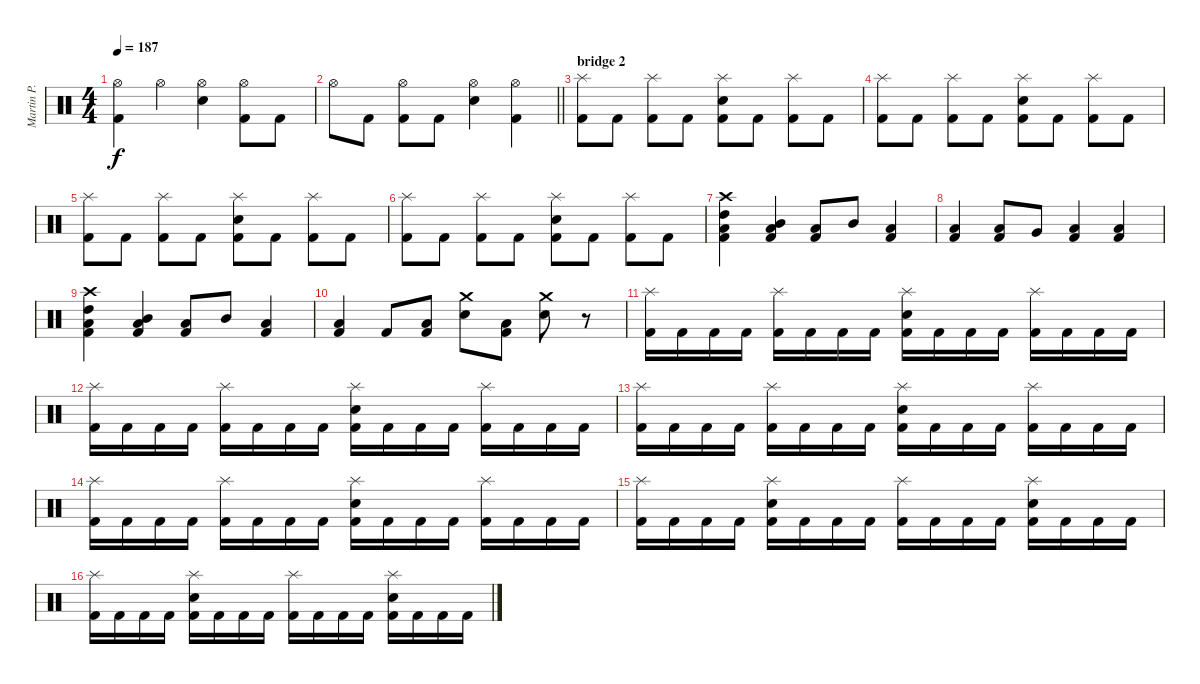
\track ("Martin P." "Martin P.") {instrument percussion}
\staff {score}
\articulation defaults
\ts (4 4)
\tempo 187
\clef neutral
\ks c
("Hi-Hat (open)" "Kick (hit) 2").4{dy f} "Hi-Hat (open)".4 ("Hi-Hat (open)" "Electric Snare (hit)").4 ("Hi-Hat (open)" "Kick (hit) 2").8 "Kick (hit) 2".8 |
\barLineRight lightlight "Hi-Hat (open)".8 "Kick (hit) 2".8
("Hi-Hat (open)" "Kick (hit) 2").8 "Kick (hit) 2".8 ("Hi-Hat (open)" "Electric Snare (hit)").4 ("Hi-Hat (open)" "Kick (hit) 2").4 |
\section ("" "bridge 2")
("Kick (hit) 2" "Splash (hit)").8 "Kick (hit) 2".8 ("Kick (hit) 2" "Splash (hit)").8 "Kick (hit) 2".8 ("Kick (hit) 2" "Electric Snare (hit)" "Splash (hit)").8 "Kick (hit) 2".8 ("Kick (hit) 2" "Splash (hit)").8 "Kick (hit) 2".8 |
("Kick (hit) 2" "Splash (hit)").8 "Kick (hit) 2".8 ("Kick (hit) 2" "Splash (hit)").8 "Kick (hit) 2".8 ("Kick (hit) 2" "Electric Snare (hit)" "Splash (hit)").8 "Kick (hit) 2".8 ("Kick (hit) 2" "Splash (hit)").8 "Kick (hit) 2".8 |
("Kick (hit) 2" "Splash (hit)").8 "Kick (hit) 2".8 ("Kick (hit) 2" "Splash (hit)").8 "Kick (hit) 2".8 ("Kick (hit) 2" "Electric Snare (hit)" "Splash (hit)").8 "Kick (hit) 2".8 ("Kick (hit) 2" "Splash (hit)").8 "Kick (hit) 2".8 |
("Kick (hit) 2" "Splash (hit)").8 "Kick (hit) 2".8 ("Kick (hit) 2" "Splash (hit)").8 "Kick (hit) 2".8 ("Kick (hit) 2" "Electric Snare (hit)" "Splash (hit)").8 "Kick (hit) 2".8 ("Kick (hit) 2" "Splash (hit)").8 "Kick (hit) 2".8 |
("Kick (hit) 2" "High Tom (hit)" "Low Floor Tom (hit)" "Crash high (hit)").4 ("Kick (hit) 2" "Mid Tom (hit)" "Low Floor Tom (hit)").4 ("Kick (hit) 2" "Low Floor Tom (hit)").8 "Mid Tom (hit)".8 ("Kick (hit) 2" "Low Floor Tom (hit)").4 |
("Kick (hit) 2" "Low Floor Tom (hit)").4 ("Kick (hit) 2" "Low Floor Tom (hit)").8 "Very Low Tom (hit)".8 ("Kick (hit) 2" "Low Floor Tom (hit)").4 ("Kick (hit) 2" "Low Floor Tom (hit)").4 |
("Kick (hit) 2" "High Tom (hit)" "Low Floor Tom (hit)" "Crash high (hit)").4 ("Kick (hit) 2" "Mid Tom (hit)" "Low Floor Tom (hit)").4 ("Kick (hit) 2" "Low Floor Tom (hit)").8 "Mid Tom (hit)".8 ("Kick (hit) 2" "Low Floor Tom (hit)").4 |
("Kick (hit) 2" "Low Floor Tom (hit)").4 "Kick (hit) 2".8 ("Kick (hit) 2" "Low Floor Tom (hit)").8 ("Electric Snare (hit)" "Crash medium (hit)").8 ("Kick (hit) 2" "Low Floor Tom (hit)").8 ("Electric Snare (hit)" "Crash medium (hit)").8 r.8 |
("Kick (hit) 2" "Splash (hit)").16 "Kick (hit) 2".16 "Kick (hit) 2".16 "Kick (hit) 2".16 ("Kick (hit) 2" "Splash (hit)").16 "Kick (hit) 2".16 "Kick (hit) 2".16 "Kick (hit) 2".16 ("Kick (hit) 2" "Electric Snare (hit)" "Splash (hit)").16 "Kick (hit) 2".16 "Kick (hit) 2".16 "Kick (hit) 2".16 ("Kick (hit) 2" "Splash (hit)").16 "Kick (hit) 2".16 "Kick (hit) 2".16 "Kick (hit) 2".16 |
("Kick (hit) 2" "Splash (hit)").16 "Kick (hit) 2".16 "Kick (hit) 2".16 "Kick (hit) 2".16 ("Kick (hit) 2" "Splash (hit)").16 "Kick (hit) 2".16 "Kick (hit) 2".16 "Kick (hit) 2".16 ("Kick (hit) 2" "Electric Snare (hit)" "Splash (hit)").16 "Kick (hit) 2".16 "Kick (hit) 2".16 "Kick (hit) 2".16 ("Kick (hit) 2" "Splash (hit)").16 "Kick (hit) 2".16 "Kick (hit) 2".16 "Kick (hit) 2".16 |
("Kick (hit) 2" "Splash (hit)").16 "Kick (hit) 2".16 "Kick (hit) 2".16 "Kick (hit) 2".16 ("Kick (hit) 2" "Splash (hit)").16 "Kick (hit) 2".16 "Kick (hit) 2".16 "Kick (hit) 2".16 ("Kick (hit) 2" "Electric Snare (hit)" "Splash (hit)").16 "Kick (hit) 2".16 "Kick (hit) 2".16 "Kick (hit) 2".16 ("Kick (hit) 2" "Splash (hit)").16 "Kick (hit) 2".16 "Kick (hit) 2".16 "Kick (hit) 2".16 |
("Kick (hit) 2" "Splash (hit)").16 "Kick (hit) 2".16 "Kick (hit) 2".16 "Kick (hit) 2".16 ("Kick (hit) 2" "Splash (hit)").16 "Kick (hit) 2".16 "Kick (hit) 2".16 "Kick (hit) 2".16 ("Kick (hit) 2" "Electric Snare (hit)" "Splash (hit)").16 "Kick (hit) 2".16 "Kick (hit) 2".16 "Kick (hit) 2".16 ("Kick (hit) 2" "Splash (hit)").16 "Kick (hit) 2".16 "Kick (hit) 2".16 "Kick (hit) 2".16 |
("Kick (hit) 2" "Splash (hit)").16 "Kick (hit) 2".16 "Kick (hit) 2".16 "Kick (hit) 2".16 ("Kick (hit) 2" "Electric Snare (hit)" "Splash (hit)").16 "Kick (hit) 2".16 "Kick (hit) 2".16 "Kick (hit) 2".16 ("Kick (hit) 2" "Splash (hit)").16 "Kick (hit) 2".16 "Kick (hit) 2".16 "Kick (hit) 2".16 ("Kick (hit) 2" "Electric Snare (hit)" "Splash (hit)").16 "Kick (hit) 2".16 "Kick (hit) 2".16 "Kick (hit) 2".16 |
("Kick (hit) 2" "Splash (hit)").16 "Kick (hit) 2".16 "Kick (hit) 2".16 "Kick (hit) 2".16 ("Kick (hit) 2" "Electric Snare (hit)" "Splash (hit)").16 "Kick (hit) 2".16 "Kick (hit) 2".16 "Kick (hit) 2".16 ("Kick (hit) 2" "Splash (hit)").16 "Kick (hit) 2".16 "Kick (hit) 2".16 "Kick (hit) 2".16 ("Kick (hit) 2" "Electric Snare (hit)" "Splash (hit)").16 "Kick (hit) 2".16 "Kick (hit) 2".16 "Kick (hit) 2".16
